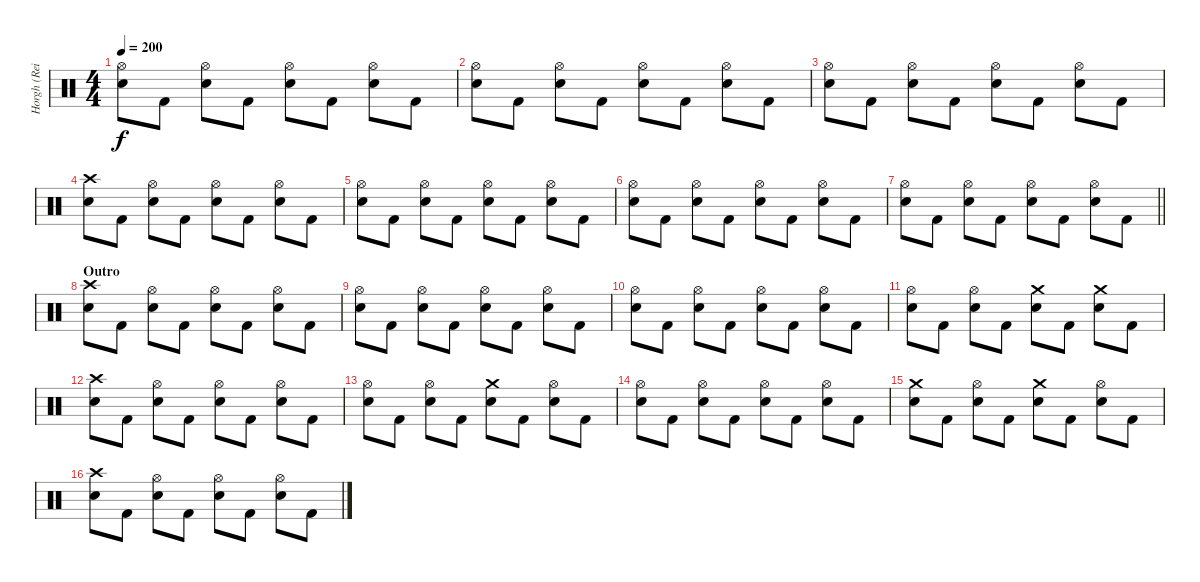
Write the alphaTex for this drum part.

\track ("Horgh (Reidar Horghagen)" "Horgh (Rei") {instrument percussion}
\staff {score}
\articulation defaults
\ts (4 4)
\tempo 200
\clef neutral
\ks c
("Hi-Hat (open)" "Snare (hit) 2").8{dy f} "Kick (hit) 2".8 ("Hi-Hat (open)" "Snare (hit) 2").8 "Kick (hit) 2".8 ("Hi-Hat (open)" "Snare (hit) 2").8 "Kick (hit) 2".8 ("Hi-Hat (open)" "Snare (hit) 2").8 "Kick (hit) 2".8 |
("Hi-Hat (open)" "Snare (hit) 2").8 "Kick (hit) 2".8 ("Hi-Hat (open)" "Snare (hit) 2").8 "Kick (hit) 2".8 ("Hi-Hat (open)" "Snare (hit) 2").8 "Kick (hit) 2".8 ("Hi-Hat (open)" "Snare (hit) 2").8 "Kick (hit) 2".8 |
("Hi-Hat (open)" "Snare (hit) 2").8 "Kick (hit) 2".8 ("Hi-Hat (open)" "Snare (hit) 2").8 "Kick (hit) 2".8 ("Hi-Hat (open)" "Snare (hit) 2").8 "Kick (hit) 2".8 ("Hi-Hat (open)" "Snare (hit) 2").8 "Kick (hit) 2".8 |
("Crash high (hit)" "Snare (hit) 2").8 "Kick (hit) 2".8 ("Hi-Hat (open)" "Snare (hit) 2").8 "Kick (hit) 2".8 ("Hi-Hat (open)" "Snare (hit) 2").8 "Kick (hit) 2".8 ("Hi-Hat (open)" "Snare (hit) 2").8 "Kick (hit) 2".8 |
("Hi-Hat (open)" "Snare (hit) 2").8 "Kick (hit) 2".8 ("Hi-Hat (open)" "Snare (hit) 2").8 "Kick (hit) 2".8 ("Hi-Hat (open)" "Snare (hit) 2").8 "Kick (hit) 2".8 ("Hi-Hat (open)" "Snare (hit) 2").8 "Kick (hit) 2".8 |
("Hi-Hat (open)" "Snare (hit) 2").8 "Kick (hit) 2".8 ("Hi-Hat (open)" "Snare (hit) 2").8 "Kick (hit) 2".8 ("Hi-Hat (open)" "Snare (hit) 2").8 "Kick (hit) 2".8 ("Hi-Hat (open)" "Snare (hit) 2").8 "Kick (hit) 2".8 |
\barLineRight lightlight
("Hi-Hat (open)" "Snare (hit) 2").8 "Kick (hit) 2".8 ("Hi-Hat (open)" "Snare (hit) 2").8 "Kick (hit) 2".8 ("Hi-Hat (open)" "Snare (hit) 2").8 "Kick (hit) 2".8 ("Hi-Hat (open)" "Snare (hit) 2").8 "Kick (hit) 2".8 |
\section ("" "Outro")
("Crash high (hit)" "Snare (hit) 2").8 "Kick (hit) 2".8 ("Hi-Hat (open)" "Snare (hit) 2").8 "Kick (hit) 2".8 ("Hi-Hat (open)" "Snare (hit) 2").8 "Kick (hit) 2".8 ("Hi-Hat (open)" "Snare (hit) 2").8 "Kick (hit) 2".8 |
("Hi-Hat (open)" "Snare (hit) 2").8 "Kick (hit) 2".8 ("Hi-Hat (open)" "Snare (hit) 2").8 "Kick (hit) 2".8 ("Hi-Hat (open)" "Snare (hit) 2").8 "Kick (hit) 2".8 ("Hi-Hat (open)" "Snare (hit) 2").8 "Kick (hit) 2".8 |
("Hi-Hat (open)" "Snare (hit) 2").8 "Kick (hit) 2".8 ("Hi-Hat (open)" "Snare (hit) 2").8 "Kick (hit) 2".8 ("Hi-Hat (open)" "Snare (hit) 2").8 "Kick (hit) 2".8 ("Hi-Hat (open)" "Snare (hit) 2").8 "Kick (hit) 2".8 |
("Hi-Hat (open)" "Snare (hit) 2").8 "Kick (hit) 2".8 ("Hi-Hat (open)" "Snare (hit) 2").8 "Kick (hit) 2".8 ("Crash medium (hit)" "Snare (hit) 2").8 "Kick (hit) 2".8 ("Crash medium (hit)" "Snare (hit) 2").8 "Kick (hit) 2".8 |
("Crash high (hit)" "Snare (hit) 2").8 "Kick (hit) 2".8 ("Hi-Hat (open)" "Snare (hit) 2").8 "Kick (hit) 2".8 ("Hi-Hat (open)" "Snare (hit) 2").8 "Kick (hit) 2".8 ("Hi-Hat (open)" "Snare (hit) 2").8 "Kick (hit) 2".8 |
("Hi-Hat (open)" "Snare (hit) 2").8 "Kick (hit) 2".8 ("Hi-Hat (open)" "Snare (hit) 2").8 "Kick (hit) 2".8 ("Crash medium (hit)" "Snare (hit) 2").8 "Kick (hit) 2".8 ("Hi-Hat (open)" "Snare (hit) 2").8 "Kick (hit) 2".8 |
("Hi-Hat (open)" "Snare (hit) 2").8 "Kick (hit) 2".8 ("Hi-Hat (open)" "Snare (hit) 2").8 "Kick (hit) 2".8 ("Hi-Hat (open)" "Snare (hit) 2").8 "Kick (hit) 2".8 ("Hi-Hat (open)" "Snare (hit) 2").8 "Kick (hit) 2".8 |
("Crash medium (hit)" "Snare (hit) 2").8 "Kick (hit) 2".8 ("Hi-Hat (open)" "Snare (hit) 2").8 "Kick (hit) 2".8 ("Crash medium (hit)" "Snare (hit) 2").8 "Kick (hit) 2".8 ("Hi-Hat (open)" "Snare (hit) 2").8 "Kick (hit) 2".8 |
("Crash high (hit)" "Snare (hit) 2").8 "Kick (hit) 2".8 ("Hi-Hat (open)" "Snare (hit) 2").8 "Kick (hit) 2".8 ("Hi-Hat (open)" "Snare (hit) 2").8 "Kick (hit) 2".8 ("Hi-Hat (open)" "Snare (hit) 2").8 "Kick (hit) 2".8
